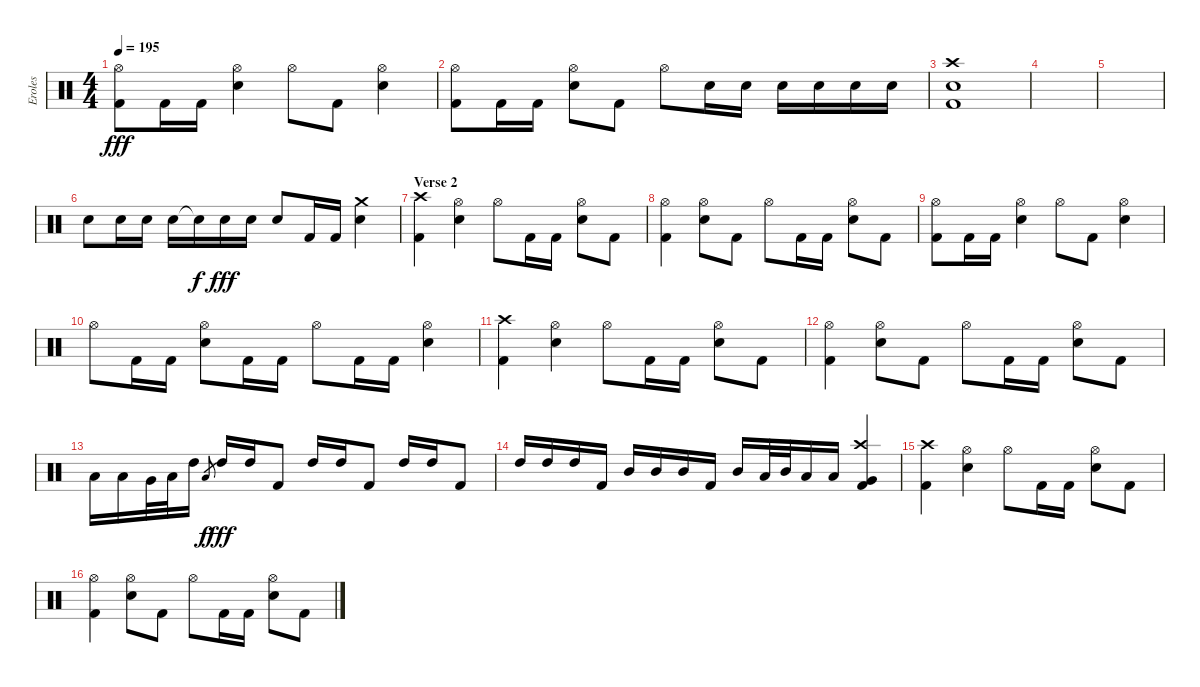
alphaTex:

\track ("Eroles" "Eroles") {instrument percussion}
\staff {score}
\articulation defaults
\ts (4 4)
\tempo 195
\clef neutral
\ks c
("Hi-Hat (open)" "Kick (hit) 2").8{dy fff} "Kick (hit) 2".16 "Kick (hit) 2".16 ("Hi-Hat (open)" "Snare (hit) 2").4 "Hi-Hat (open)".8 "Kick (hit) 2".8 ("Hi-Hat (open)" "Snare (hit) 2").4 |
("Hi-Hat (open)" "Kick (hit) 2").8 "Kick (hit) 2".16 "Kick (hit) 2".16 ("Hi-Hat (open)" "Snare (hit) 2").8 "Kick (hit) 2".8 "Hi-Hat (open)".8 "Snare (hit) 2".16 "Snare (hit) 2".16 "Snare (hit) 2".16 "Snare (hit) 2".16 "Snare (hit) 2".16 "Snare (hit) 2".16 |
("Crash high (hit)" "Snare (hit) 2" "Kick (hit) 2").1{bd 240} |
|
|
"Snare (hit) 2".8 "Snare (hit) 2".16 "Snare (hit) 2".16 "Snare (hit) 2".16 "Snare (hit)"{t}.16{dy f} "Snare (hit) 2".16{dy fff} "Snare (hit) 2".16 "Snare (hit) 2".8 "Kick (hit) 2".16 "Kick (hit) 2".16 ("Crash medium (hit)" "Snare (hit) 2").4 |
\section ("" "Verse 2")
("Crash high (hit)" "Kick (hit) 2").4 ("Hi-Hat (open)" "Snare (hit) 2").4 "Hi-Hat (open)".8 "Kick (hit) 2".16 "Kick (hit) 2".16 ("Hi-Hat (open)" "Snare (hit) 2").8 "Kick (hit) 2".8 |
("Hi-Hat (open)" "Kick (hit) 2").4 ("Hi-Hat (open)" "Snare (hit) 2").8 "Kick (hit) 2".8 "Hi-Hat (open)".8 "Kick (hit) 2".16 "Kick (hit) 2".16 ("Hi-Hat (open)" "Snare (hit) 2").8 "Kick (hit) 2".8 |
("Hi-Hat (open)" "Kick (hit) 2").8 "Kick (hit) 2".16 "Kick (hit) 2".16 ("Hi-Hat (open)" "Snare (hit) 2").4 "Hi-Hat (open)".8 "Kick (hit) 2".8 ("Hi-Hat (open)" "Snare (hit) 2").4 |
"Hi-Hat (open)".8 "Kick (hit) 2".16 "Kick (hit) 2".16 ("Hi-Hat (open)" "Snare (hit) 2").8 "Kick (hit) 2".16 "Kick (hit) 2".16 "Hi-Hat (open)".8 "Kick (hit) 2".16 "Kick (hit) 2".16 ("Hi-Hat (open)" "Snare (hit) 2").4 |
("Crash high (hit)" "Kick (hit) 2").4 ("Hi-Hat (open)" "Snare (hit) 2").4 "Hi-Hat (open)".8 "Kick (hit) 2".16 "Kick (hit) 2".16 ("Hi-Hat (open)" "Snare (hit) 2").8 "Kick (hit) 2".8 |
("Hi-Hat (open)" "Kick (hit) 2").4 ("Hi-Hat (open)" "Snare (hit) 2").8 "Kick (hit) 2".8 "Hi-Hat (open)".8 "Kick (hit) 2".16 "Kick (hit) 2".16 ("Hi-Hat (open)" "Snare (hit) 2").8 "Kick (hit) 2".8 |
"Low Tom (hit)".16 "Low Tom (hit)".16 "Very Low Tom (hit)".32 "Low Tom (hit)".32 "High Tom (hit)".16 "Low Tom (hit)".8{gr dy f} "High Tom (hit)".16{dy fff} "High Tom (hit)".16 "Kick (hit) 2".8 "High Tom (hit)".16 "High Tom (hit)".16 "Kick (hit) 2".8 "High Tom (hit)".16 "High Tom (hit)".16 "Kick (hit) 2".8 |
"High Tom (hit)".16 "High Tom (hit)".16 "High Tom (hit)".16 "Kick (hit) 2".16 "Mid Tom (hit)".16 "Mid Tom (hit)".16 "Mid Tom (hit)".16 "Kick (hit) 2".16 "Mid Tom (hit)".16 "Low Tom (hit)".32 "Mid Tom (hit)".32 "Low Tom (hit)".16 "Low Tom (hit)".16 ("Crash high (hit)" "Very Low Tom (hit)" "Kick (hit) 2").4 |
("Crash high (hit)" "Kick (hit) 2").4 ("Hi-Hat (open)" "Snare (hit) 2").4 "Hi-Hat (open)".8 "Kick (hit) 2".16 "Kick (hit) 2".16 ("Hi-Hat (open)" "Snare (hit) 2").8 "Kick (hit) 2".8 |
("Hi-Hat (open)" "Kick (hit) 2").4 ("Hi-Hat (open)" "Snare (hit) 2").8 "Kick (hit) 2".8 "Hi-Hat (open)".8 "Kick (hit) 2".16 "Kick (hit) 2".16 ("Hi-Hat (open)" "Snare (hit) 2").8 "Kick (hit) 2".8
